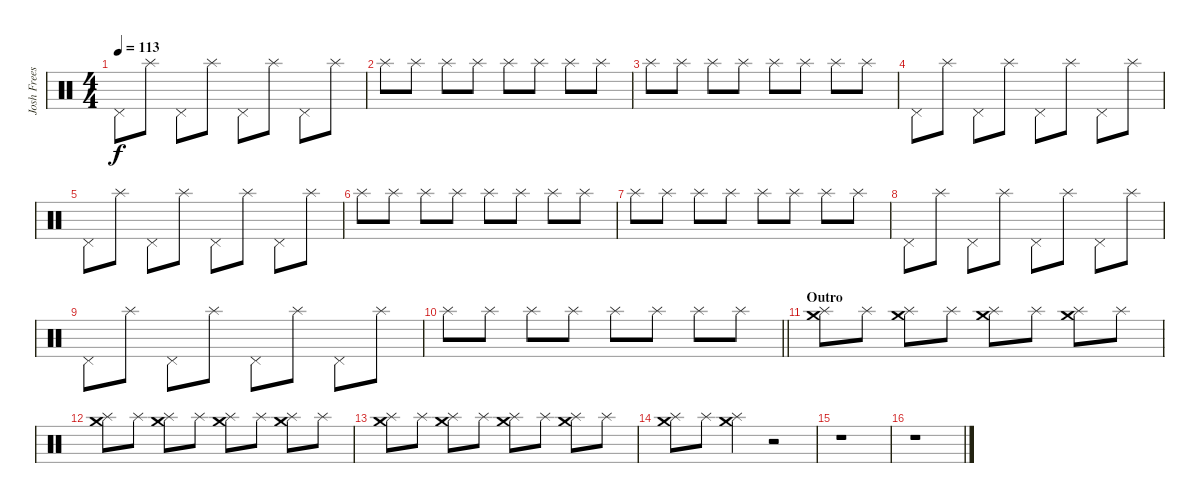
\track ("Josh Freese (Studio Drummer)" "Josh Frees") {instrument percussion}
\staff {score}
\articulation defaults
\ts (4 4)
\tempo 113
\clef neutral
\ks c "Pedal Hi-Hat (hit)".8{dy f} "Splash (hit)".8 "Pedal Hi-Hat (hit)".8 "Splash (hit)".8 "Pedal Hi-Hat (hit)".8 "Splash (hit)".8 "Pedal Hi-Hat (hit)".8 "Splash (hit)".8
|
"Splash (hit)".8 "Splash (hit)".8 "Splash (hit)".8 "Splash (hit)".8 "Splash (hit)".8 "Splash (hit)".8 "Splash (hit)".8 "Splash (hit)".8 |
"Splash (hit)".8 "Splash (hit)".8 "Splash (hit)".8 "Splash (hit)".8 "Splash (hit)".8 "Splash (hit)".8 "Splash (hit)".8 "Splash (hit)".8 |
"Pedal Hi-Hat (hit)".8 "Splash (hit)".8 "Pedal Hi-Hat (hit)".8 "Splash (hit)".8 "Pedal Hi-Hat (hit)".8 "Splash (hit)".8 "Pedal Hi-Hat (hit)".8 "Splash (hit)".8 |
"Pedal Hi-Hat (hit)".8 "Splash (hit)".8 "Pedal Hi-Hat (hit)".8 "Splash (hit)".8 "Pedal Hi-Hat (hit)".8 "Splash (hit)".8 "Pedal Hi-Hat (hit)".8 "Splash (hit)".8 |
"Splash (hit)".8 "Splash (hit)".8 "Splash (hit)".8 "Splash (hit)".8 "Splash (hit)".8 "Splash (hit)".8 "Splash (hit)".8 "Splash (hit)".8 |
"Splash (hit)".8 "Splash (hit)".8 "Splash (hit)".8 "Splash (hit)".8 "Splash (hit)".8 "Splash (hit)".8 "Splash (hit)".8 "Splash (hit)".8 |
"Pedal Hi-Hat (hit)".8 "Splash (hit)".8 "Pedal Hi-Hat (hit)".8 "Splash (hit)".8 "Pedal Hi-Hat (hit)".8 "Splash (hit)".8 "Pedal Hi-Hat (hit)".8 "Splash (hit)".8 |
"Pedal Hi-Hat (hit)".8 "Splash (hit)".8 "Pedal Hi-Hat (hit)".8 "Splash (hit)".8 "Pedal Hi-Hat (hit)".8 "Splash (hit)".8 "Pedal Hi-Hat (hit)".8 "Splash (hit)".8 |
\barLineRight lightlight "Splash (hit)".8 "Splash (hit)".8 "Splash (hit)".8 "Splash (hit)".8 "Splash (hit)".8 "Splash (hit)".8 "Splash (hit)".8 "Splash (hit)".8
|
\section ("" "Outro")
("Crash medium (hit)" "Splash (hit)").8 "Splash (hit)".8 ("Crash medium (hit)" "Splash (hit)").8 "Splash (hit)".8 ("Crash medium (hit)" "Splash (hit)").8 "Splash (hit)".8 ("Crash medium (hit)" "Splash (hit)").8 "Splash (hit)".8 |
("Crash medium (hit)" "Splash (hit)").8 "Splash (hit)".8 ("Crash medium (hit)" "Splash (hit)").8 "Splash (hit)".8 ("Crash medium (hit)" "Splash (hit)").8 "Splash (hit)".8 ("Crash medium (hit)" "Splash (hit)").8 "Splash (hit)".8 |
("Crash medium (hit)" "Splash (hit)").8 "Splash (hit)".8 ("Crash medium (hit)" "Splash (hit)").8 "Splash (hit)".8 ("Crash medium (hit)" "Splash (hit)").8 "Splash (hit)".8 ("Crash medium (hit)" "Splash (hit)").8 "Splash (hit)".8 |
("Crash medium (hit)" "Splash (hit)").8 "Splash (hit)".8 ("Crash medium (hit)" "Splash (hit)").4 r.2 |
r.1 |
r.1
